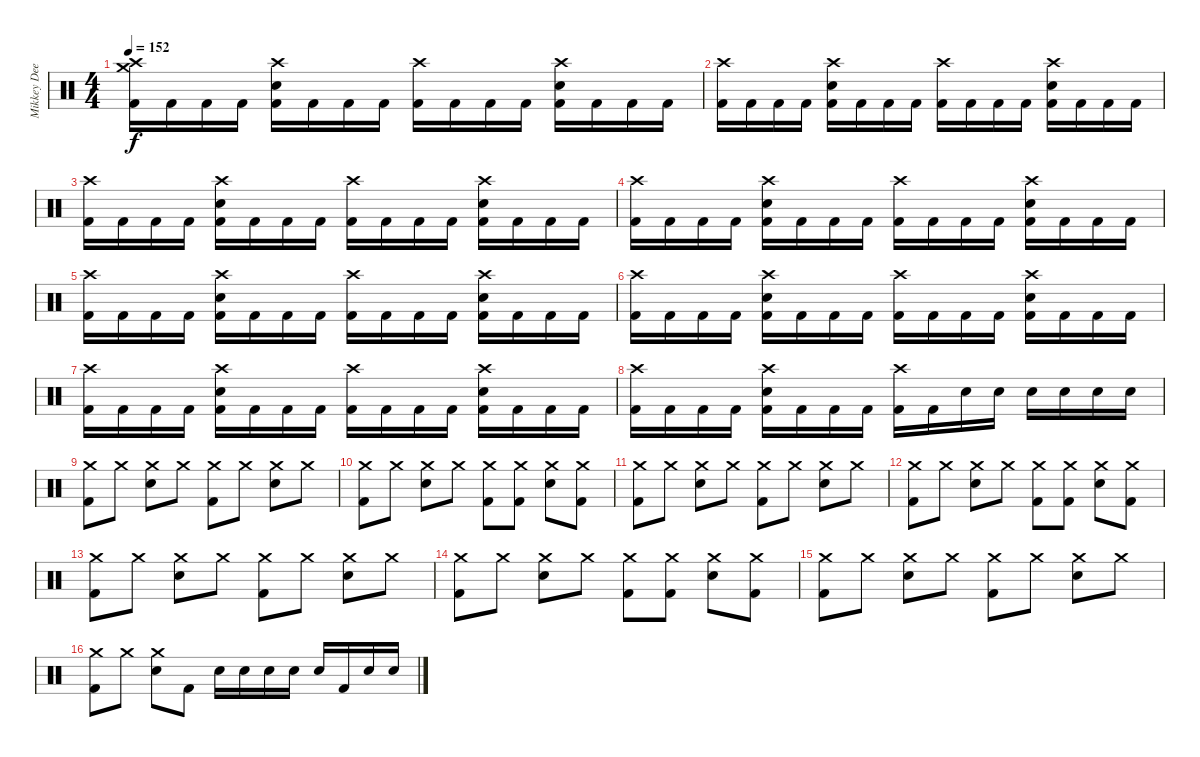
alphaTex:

\track ("Mikkey Dee" "Mikkey Dee") {instrument percussion}
\staff {score}
\articulation defaults
\ts (4 4)
\tempo 152
\clef neutral
\ks c
("Crash high (hit)" "Crash medium (hit)" "Kick (hit) 2").16{dy f} "Kick (hit) 2".16 "Kick (hit) 2".16 "Kick (hit) 2".16 ("Crash high (hit)" "Snare (hit) 2" "Kick (hit) 2").16 "Kick (hit) 2".16 "Kick (hit) 2".16 "Kick (hit) 2".16 ("Crash high (hit)" "Kick (hit) 2").16 "Kick (hit) 2".16 "Kick (hit) 2".16 "Kick (hit) 2".16 ("Crash high (hit)" "Snare (hit) 2" "Kick (hit) 2").16 "Kick (hit) 2".16 "Kick (hit) 2".16 "Kick (hit) 2".16 |
("Crash high (hit)" "Kick (hit) 2").16 "Kick (hit) 2".16 "Kick (hit) 2".16 "Kick (hit) 2".16 ("Crash high (hit)" "Snare (hit) 2" "Kick (hit) 2").16 "Kick (hit) 2".16 "Kick (hit) 2".16 "Kick (hit) 2".16 ("Crash high (hit)" "Kick (hit) 2").16 "Kick (hit) 2".16 "Kick (hit) 2".16 "Kick (hit) 2".16 ("Crash high (hit)" "Snare (hit) 2" "Kick (hit) 2").16 "Kick (hit) 2".16 "Kick (hit) 2".16 "Kick (hit) 2".16 |
("Crash high (hit)" "Kick (hit) 2").16 "Kick (hit) 2".16 "Kick (hit) 2".16 "Kick (hit) 2".16 ("Crash high (hit)" "Snare (hit) 2" "Kick (hit) 2").16 "Kick (hit) 2".16 "Kick (hit) 2".16 "Kick (hit) 2".16 ("Crash high (hit)" "Kick (hit) 2").16 "Kick (hit) 2".16 "Kick (hit) 2".16 "Kick (hit) 2".16 ("Crash high (hit)" "Snare (hit) 2" "Kick (hit) 2").16 "Kick (hit) 2".16 "Kick (hit) 2".16 "Kick (hit) 2".16 |
("Crash high (hit)" "Kick (hit) 2").16 "Kick (hit) 2".16 "Kick (hit) 2".16 "Kick (hit) 2".16 ("Crash high (hit)" "Snare (hit) 2" "Kick (hit) 2").16 "Kick (hit) 2".16 "Kick (hit) 2".16 "Kick (hit) 2".16 ("Crash high (hit)" "Kick (hit) 2").16 "Kick (hit) 2".16 "Kick (hit) 2".16 "Kick (hit) 2".16 ("Crash high (hit)" "Snare (hit) 2" "Kick (hit) 2").16 "Kick (hit) 2".16 "Kick (hit) 2".16 "Kick (hit) 2".16 |
("Crash high (hit)" "Kick (hit) 2").16 "Kick (hit) 2".16 "Kick (hit) 2".16 "Kick (hit) 2".16 ("Crash high (hit)" "Snare (hit) 2" "Kick (hit) 2").16 "Kick (hit) 2".16 "Kick (hit) 2".16 "Kick (hit) 2".16 ("Crash high (hit)" "Kick (hit) 2").16 "Kick (hit) 2".16 "Kick (hit) 2".16 "Kick (hit) 2".16 ("Crash high (hit)" "Snare (hit) 2" "Kick (hit) 2").16 "Kick (hit) 2".16 "Kick (hit) 2".16 "Kick (hit) 2".16 |
("Crash high (hit)" "Kick (hit) 2").16 "Kick (hit) 2".16 "Kick (hit) 2".16 "Kick (hit) 2".16 ("Crash high (hit)" "Snare (hit) 2" "Kick (hit) 2").16 "Kick (hit) 2".16 "Kick (hit) 2".16 "Kick (hit) 2".16 ("Crash high (hit)" "Kick (hit) 2").16 "Kick (hit) 2".16 "Kick (hit) 2".16 "Kick (hit) 2".16 ("Crash high (hit)" "Snare (hit) 2" "Kick (hit) 2").16 "Kick (hit) 2".16 "Kick (hit) 2".16 "Kick (hit) 2".16 |
("Crash high (hit)" "Kick (hit) 2").16 "Kick (hit) 2".16 "Kick (hit) 2".16 "Kick (hit) 2".16 ("Crash high (hit)" "Snare (hit) 2" "Kick (hit) 2").16 "Kick (hit) 2".16 "Kick (hit) 2".16 "Kick (hit) 2".16 ("Crash high (hit)" "Kick (hit) 2").16 "Kick (hit) 2".16 "Kick (hit) 2".16 "Kick (hit) 2".16 ("Crash high (hit)" "Snare (hit) 2" "Kick (hit) 2").16 "Kick (hit) 2".16 "Kick (hit) 2".16 "Kick (hit) 2".16 |
("Crash high (hit)" "Kick (hit) 2").16 "Kick (hit) 2".16 "Kick (hit) 2".16 "Kick (hit) 2".16 ("Crash high (hit)" "Snare (hit) 2" "Kick (hit) 2").16 "Kick (hit) 2".16 "Kick (hit) 2".16 "Kick (hit) 2".16 ("Crash high (hit)" "Kick (hit) 2").16 "Kick (hit) 2".16 "Snare (hit) 2".16 "Snare (hit) 2".16 "Snare (hit) 2".16 "Snare (hit) 2".16 "Snare (hit) 2".16 "Snare (hit) 2".16 |
("Crash medium (hit)" "Kick (hit) 2").8 "Crash medium (hit)".8 ("Crash medium (hit)" "Snare (hit) 2").8 "Crash medium (hit)".8 ("Crash medium (hit)" "Kick (hit) 2").8 "Crash medium (hit)".8 ("Crash medium (hit)" "Snare (hit) 2").8 "Crash medium (hit)".8 |
("Crash medium (hit)" "Kick (hit) 2").8 "Crash medium (hit)".8 ("Crash medium (hit)" "Snare (hit) 2").8 "Crash medium (hit)".8 ("Crash medium (hit)" "Kick (hit) 2").8 ("Crash medium (hit)" "Kick (hit) 2").8 ("Crash medium (hit)" "Snare (hit) 2").8 ("Crash medium (hit)" "Kick (hit) 2").8 |
("Crash medium (hit)" "Kick (hit) 2").8 "Crash medium (hit)".8 ("Crash medium (hit)" "Snare (hit) 2").8 "Crash medium (hit)".8 ("Crash medium (hit)" "Kick (hit) 2").8 "Crash medium (hit)".8 ("Crash medium (hit)" "Snare (hit) 2").8 "Crash medium (hit)".8 |
("Crash medium (hit)" "Kick (hit) 2").8 "Crash medium (hit)".8 ("Crash medium (hit)" "Snare (hit) 2").8 "Crash medium (hit)".8 ("Crash medium (hit)" "Kick (hit) 2").8 ("Crash medium (hit)" "Kick (hit) 2").8 ("Crash medium (hit)" "Snare (hit) 2").8 ("Crash medium (hit)" "Kick (hit) 2").8 |
("Crash medium (hit)" "Kick (hit) 2").8 "Crash medium (hit)".8 ("Crash medium (hit)" "Snare (hit) 2").8 "Crash medium (hit)".8 ("Crash medium (hit)" "Kick (hit) 2").8 "Crash medium (hit)".8 ("Crash medium (hit)" "Snare (hit) 2").8 "Crash medium (hit)".8 |
("Crash medium (hit)" "Kick (hit) 2").8 "Crash medium (hit)".8 ("Crash medium (hit)" "Snare (hit) 2").8 "Crash medium (hit)".8 ("Crash medium (hit)" "Kick (hit) 2").8 ("Crash medium (hit)" "Kick (hit) 2").8 ("Crash medium (hit)" "Snare (hit) 2").8 ("Crash medium (hit)" "Kick (hit) 2").8 |
("Crash medium (hit)" "Kick (hit) 2").8 "Crash medium (hit)".8 ("Crash medium (hit)" "Snare (hit) 2").8 "Crash medium (hit)".8 ("Crash medium (hit)" "Kick (hit) 2").8 "Crash medium (hit)".8 ("Crash medium (hit)" "Snare (hit) 2").8 "Crash medium (hit)".8 |
("Crash medium (hit)" "Kick (hit) 2").8 "Crash medium (hit)".8 ("Crash medium (hit)" "Snare (hit) 2").8 "Kick (hit) 2".8 "Snare (hit) 2".16 "Snare (hit) 2".16 "Snare (hit) 2".16 "Snare (hit) 2".16 "Snare (hit) 2".16 "Kick (hit) 2".16 "Snare (hit) 2".16 "Snare (hit) 2".16
